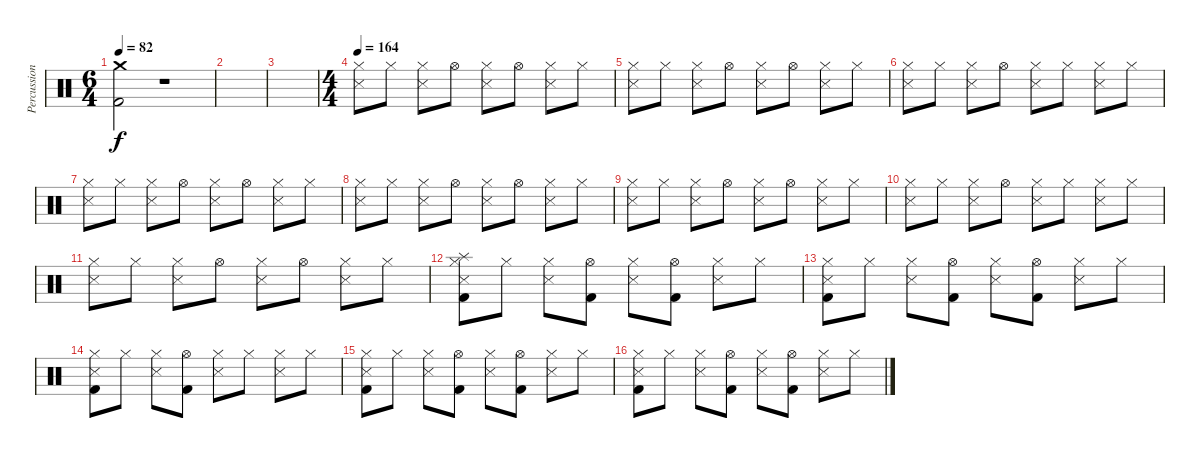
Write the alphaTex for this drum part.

\track ("Percussion" "Percussion") {instrument percussion}
\staff {score}
\articulation defaults
\ts (6 4)
\tempo 82
\clef neutral
\ks c
("Crash medium (hit)" "Kick (hit) 2").2{dy f} r.1 |
|
|
\ts (4 4)
\tempo 164
("Snare (side stick) 3" "Hi-Hat (closed)").8 "Hi-Hat (closed)".8 ("Snare (side stick) 3" "Hi-Hat (closed)").8 "Hi-Hat (open)".8 ("Snare (side stick) 3" "Hi-Hat (closed)").8 "Hi-Hat (open)".8 ("Snare (side stick) 3" "Hi-Hat (closed)").8 "Hi-Hat (closed)".8 |
("Snare (side stick) 3" "Hi-Hat (closed)").8 "Hi-Hat (closed)".8 ("Snare (side stick) 3" "Hi-Hat (closed)").8 "Hi-Hat (open)".8 ("Snare (side stick) 3" "Hi-Hat (closed)").8 "Hi-Hat (open)".8 ("Snare (side stick) 3" "Hi-Hat (closed)").8 "Hi-Hat (closed)".8 |
("Snare (side stick) 3" "Hi-Hat (closed)").8 "Hi-Hat (closed)".8 ("Snare (side stick) 3" "Hi-Hat (closed)").8 "Hi-Hat (open)".8 ("Snare (side stick) 3" "Hi-Hat (closed)").8 "Hi-Hat (closed)".8 ("Snare (side stick) 3" "Hi-Hat (closed)").8 "Hi-Hat (closed)".8 |
("Snare (side stick) 3" "Hi-Hat (closed)").8 "Hi-Hat (closed)".8 ("Snare (side stick) 3" "Hi-Hat (closed)").8 "Hi-Hat (open)".8 ("Snare (side stick) 3" "Hi-Hat (closed)").8 "Hi-Hat (open)".8 ("Snare (side stick) 3" "Hi-Hat (closed)").8 "Hi-Hat (closed)".8 |
("Snare (side stick) 3" "Hi-Hat (closed)").8 "Hi-Hat (closed)".8 ("Snare (side stick) 3" "Hi-Hat (closed)").8 "Hi-Hat (open)".8 ("Snare (side stick) 3" "Hi-Hat (closed)").8 "Hi-Hat (open)".8 ("Snare (side stick) 3" "Hi-Hat (closed)").8 "Hi-Hat (closed)".8 |
("Snare (side stick) 3" "Hi-Hat (closed)").8 "Hi-Hat (closed)".8 ("Snare (side stick) 3" "Hi-Hat (closed)").8 "Hi-Hat (open)".8 ("Snare (side stick) 3" "Hi-Hat (closed)").8 "Hi-Hat (open)".8 ("Snare (side stick) 3" "Hi-Hat (closed)").8 "Hi-Hat (closed)".8 |
("Snare (side stick) 3" "Hi-Hat (closed)").8 "Hi-Hat (closed)".8 ("Snare (side stick) 3" "Hi-Hat (closed)").8 "Hi-Hat (open)".8 ("Snare (side stick) 3" "Hi-Hat (closed)").8 "Hi-Hat (closed)".8 ("Snare (side stick) 3" "Hi-Hat (closed)").8 "Hi-Hat (closed)".8 |
("Snare (side stick) 3" "Hi-Hat (closed)").8 "Hi-Hat (closed)".8 ("Snare (side stick) 3" "Hi-Hat (closed)").8 "Hi-Hat (open)".8 ("Snare (side stick) 3" "Hi-Hat (closed)").8 "Hi-Hat (open)".8 ("Snare (side stick) 3" "Hi-Hat (closed)").8 "Hi-Hat (closed)".8 |
("Splash (hit)" "Snare (side stick) 3" "Hi-Hat (closed)" "Kick (hit) 2").8 "Hi-Hat (closed)".8 ("Snare (side stick) 3" "Hi-Hat (closed)").8 ("Hi-Hat (open)" "Kick (hit) 2").8 ("Snare (side stick) 3" "Hi-Hat (closed)").8 ("Hi-Hat (open)" "Kick (hit) 2").8 ("Snare (side stick) 3" "Hi-Hat (closed)").8 "Hi-Hat (closed)".8 |
("Snare (side stick) 3" "Hi-Hat (closed)" "Kick (hit) 2").8 "Hi-Hat (closed)".8 ("Snare (side stick) 3" "Hi-Hat (closed)").8 ("Hi-Hat (open)" "Kick (hit) 2").8 ("Snare (side stick) 3" "Hi-Hat (closed)").8 ("Hi-Hat (open)" "Kick (hit) 2").8 ("Snare (side stick) 3" "Hi-Hat (closed)").8 "Hi-Hat (closed)".8 |
("Snare (side stick) 3" "Hi-Hat (closed)" "Kick (hit) 2").8 "Hi-Hat (closed)".8 ("Snare (side stick) 3" "Hi-Hat (closed)").8 ("Hi-Hat (open)" "Kick (hit) 2").8 ("Snare (side stick) 3" "Hi-Hat (closed)").8 "Hi-Hat (closed)".8 ("Snare (side stick) 3" "Hi-Hat (closed)").8 "Hi-Hat (closed)".8 |
("Snare (side stick) 3" "Hi-Hat (closed)" "Kick (hit) 2").8 "Hi-Hat (closed)".8 ("Snare (side stick) 3" "Hi-Hat (closed)").8 ("Hi-Hat (open)" "Kick (hit) 2").8 ("Snare (side stick) 3" "Hi-Hat (closed)").8 ("Hi-Hat (open)" "Kick (hit) 2").8 ("Snare (side stick) 3" "Hi-Hat (closed)").8 "Hi-Hat (closed)".8 |
("Snare (side stick) 3" "Hi-Hat (closed)" "Kick (hit) 2").8 "Hi-Hat (closed)".8 ("Snare (side stick) 3" "Hi-Hat (closed)").8 ("Hi-Hat (open)" "Kick (hit) 2").8 ("Snare (side stick) 3" "Hi-Hat (closed)").8 ("Hi-Hat (open)" "Kick (hit) 2").8 ("Snare (side stick) 3" "Hi-Hat (closed)").8 "Hi-Hat (closed)".8
